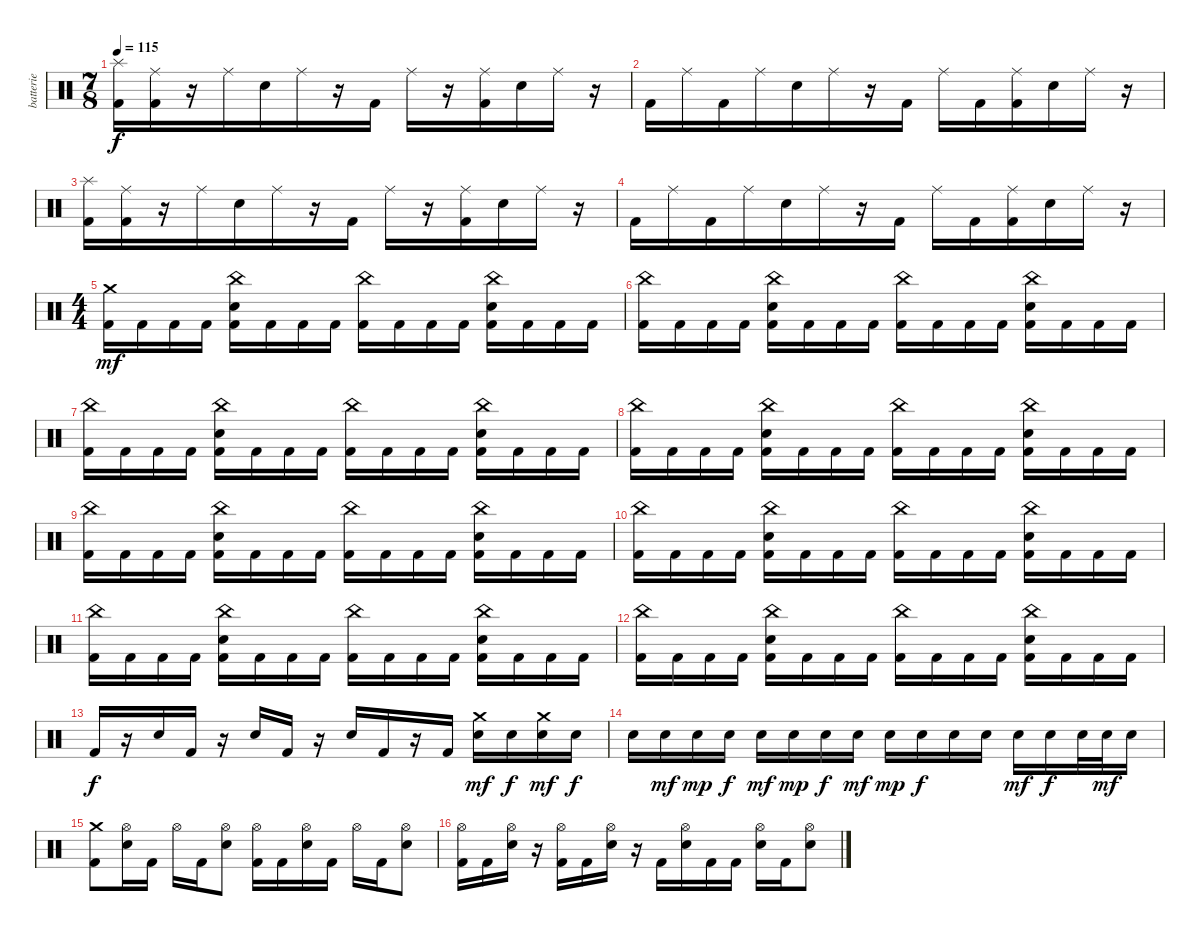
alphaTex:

\track ("batterie" "batterie") {instrument percussion}
\staff {score}
\articulation defaults
\ts (7 8)
\tempo 115
\clef neutral
\ks c
("Kick (hit) 2" "Splash (hit)").16{dy f} ("Kick (hit) 2" "Ride (middle)").16 r.16 "Ride (middle)".16 "Electric Snare (hit)".16 "Ride (middle)".16 r.16 "Kick (hit) 2".16 "Ride (middle)".16 r.16 ("Kick (hit) 2" "Ride (middle)").16 "Electric Snare (hit)".16 "Ride (middle)".16 r.16 |
"Kick (hit) 2".16 "Ride (middle)".16 "Kick (hit) 2".16 "Ride (middle)".16 "Electric Snare (hit)".16 "Ride (middle)".16 r.16 "Kick (hit) 2".16 "Ride (middle)".16 "Kick (hit) 2".16 ("Kick (hit) 2" "Ride (middle)").16 "Electric Snare (hit)".16 "Ride (middle)".16 r.16 |
("Kick (hit) 2" "Splash (hit)").16 ("Kick (hit) 2" "Ride (middle)").16 r.16 "Ride (middle)".16 "Electric Snare (hit)".16 "Ride (middle)".16 r.16 "Kick (hit) 2".16 "Ride (middle)".16 r.16 ("Kick (hit) 2" "Ride (middle)").16 "Electric Snare (hit)".16 "Ride (middle)".16 r.16 |
"Kick (hit) 2".16 "Ride (middle)".16 "Kick (hit) 2".16 "Ride (middle)".16 "Electric Snare (hit)".16 "Ride (middle)".16 r.16 "Kick (hit) 2".16 "Ride (middle)".16 "Kick (hit) 2".16 ("Kick (hit) 2" "Ride (middle)").16 "Electric Snare (hit)".16 "Ride (middle)".16 r.16 |
\ts (4 4)
("Crash medium (hit)" "Kick (hit) 2").16{dy mf} "Kick (hit) 2".16 "Kick (hit) 2".16 "Kick (hit) 2".16 ("China (hit)" "Electric Snare (hit)" "Kick (hit) 2").16 "Kick (hit) 2".16 "Kick (hit) 2".16 "Kick (hit) 2".16 ("China (hit)" "Kick (hit) 2").16 "Kick (hit) 2".16 "Kick (hit) 2".16 "Kick (hit) 2".16 ("China (hit)" "Electric Snare (hit)" "Kick (hit) 2").16 "Kick (hit) 2".16 "Kick (hit) 2".16 "Kick (hit) 2".16 |
("China (hit)" "Kick (hit) 2").16 "Kick (hit) 2".16 "Kick (hit) 2".16 "Kick (hit) 2".16 ("China (hit)" "Electric Snare (hit)" "Kick (hit) 2").16 "Kick (hit) 2".16 "Kick (hit) 2".16 "Kick (hit) 2".16 ("China (hit)" "Kick (hit) 2").16 "Kick (hit) 2".16 "Kick (hit) 2".16 "Kick (hit) 2".16 ("China (hit)" "Electric Snare (hit)" "Kick (hit) 2").16 "Kick (hit) 2".16 "Kick (hit) 2".16 "Kick (hit) 2".16 |
("China (hit)" "Kick (hit) 2").16 "Kick (hit) 2".16 "Kick (hit) 2".16 "Kick (hit) 2".16 ("China (hit)" "Electric Snare (hit)" "Kick (hit) 2").16 "Kick (hit) 2".16 "Kick (hit) 2".16 "Kick (hit) 2".16 ("China (hit)" "Kick (hit) 2").16 "Kick (hit) 2".16 "Kick (hit) 2".16 "Kick (hit) 2".16 ("China (hit)" "Electric Snare (hit)" "Kick (hit) 2").16 "Kick (hit) 2".16 "Kick (hit) 2".16 "Kick (hit) 2".16 |
("China (hit)" "Kick (hit) 2").16 "Kick (hit) 2".16 "Kick (hit) 2".16 "Kick (hit) 2".16 ("China (hit)" "Electric Snare (hit)" "Kick (hit) 2").16 "Kick (hit) 2".16 "Kick (hit) 2".16 "Kick (hit) 2".16 ("China (hit)" "Kick (hit) 2").16 "Kick (hit) 2".16 "Kick (hit) 2".16 "Kick (hit) 2".16 ("China (hit)" "Electric Snare (hit)" "Kick (hit) 2").16 "Kick (hit) 2".16 "Kick (hit) 2".16 "Kick (hit) 2".16 |
("China (hit)" "Kick (hit) 2").16 "Kick (hit) 2".16 "Kick (hit) 2".16 "Kick (hit) 2".16 ("China (hit)" "Electric Snare (hit)" "Kick (hit) 2").16 "Kick (hit) 2".16 "Kick (hit) 2".16 "Kick (hit) 2".16 ("China (hit)" "Kick (hit) 2").16 "Kick (hit) 2".16 "Kick (hit) 2".16 "Kick (hit) 2".16 ("China (hit)" "Electric Snare (hit)" "Kick (hit) 2").16 "Kick (hit) 2".16 "Kick (hit) 2".16 "Kick (hit) 2".16 |
("China (hit)" "Kick (hit) 2").16 "Kick (hit) 2".16 "Kick (hit) 2".16 "Kick (hit) 2".16 ("China (hit)" "Electric Snare (hit)" "Kick (hit) 2").16 "Kick (hit) 2".16 "Kick (hit) 2".16 "Kick (hit) 2".16 ("China (hit)" "Kick (hit) 2").16 "Kick (hit) 2".16 "Kick (hit) 2".16 "Kick (hit) 2".16 ("China (hit)" "Electric Snare (hit)" "Kick (hit) 2").16 "Kick (hit) 2".16 "Kick (hit) 2".16 "Kick (hit) 2".16 |
("China (hit)" "Kick (hit) 2").16 "Kick (hit) 2".16 "Kick (hit) 2".16 "Kick (hit) 2".16 ("China (hit)" "Electric Snare (hit)" "Kick (hit) 2").16 "Kick (hit) 2".16 "Kick (hit) 2".16 "Kick (hit) 2".16 ("China (hit)" "Kick (hit) 2").16 "Kick (hit) 2".16 "Kick (hit) 2".16 "Kick (hit) 2".16 ("China (hit)" "Electric Snare (hit)" "Kick (hit) 2").16 "Kick (hit) 2".16 "Kick (hit) 2".16 "Kick (hit) 2".16 |
("China (hit)" "Kick (hit) 2").16 "Kick (hit) 2".16 "Kick (hit) 2".16 "Kick (hit) 2".16 ("China (hit)" "Electric Snare (hit)" "Kick (hit) 2").16 "Kick (hit) 2".16 "Kick (hit) 2".16 "Kick (hit) 2".16 ("China (hit)" "Kick (hit) 2").16 "Kick (hit) 2".16 "Kick (hit) 2".16 "Kick (hit) 2".16 ("China (hit)" "Electric Snare (hit)" "Kick (hit) 2").16 "Kick (hit) 2".16 "Kick (hit) 2".16 "Kick (hit) 2".16 |
"Kick (hit) 2".16{dy f} r.16 "Electric Snare (hit)".16 "Kick (hit) 2".16 r.16 "Electric Snare (hit)".16 "Kick (hit) 2".16 r.16 "Electric Snare (hit)".16 "Kick (hit) 2".16 r.16 "Kick (hit) 2".16 ("Crash medium (hit)" "Electric Snare (hit)").16{dy mf} "Electric Snare (hit)".16{dy f} ("Crash medium (hit)" "Electric Snare (hit)").16{dy mf} "Electric Snare (hit)".16{dy f} |
"Electric Snare (hit)".16 "Electric Snare (hit)".16{dy mf} "Electric Snare (hit)".16{dy mp} "Electric Snare (hit)".16{dy f} "Electric Snare (hit)".16{dy mf} "Electric Snare (hit)".16{dy mp} "Electric Snare (hit)".16{dy f} "Electric Snare (hit)".16{dy mf} "Electric Snare (hit)".16{dy mp} "Electric Snare (hit)".16{dy f} "Electric Snare (hit)".16 "Electric Snare (hit)".16 "Electric Snare (hit)".16{dy mf} "Electric Snare (hit)".16{dy f} "Electric Snare (hit)".32 "Electric Snare (hit)".32{dy mf} "Electric Snare (hit)".16 |
("Crash medium (hit)" "Kick (hit) 2").8 ("Hi-Hat (open)" "Electric Snare (hit)").16 "Kick (hit) 2".16 "Hi-Hat (open)".16 "Kick (hit) 2".16 ("Hi-Hat (open)" "Electric Snare (hit)").8 ("Hi-Hat (open)" "Kick (hit) 2").16 "Kick (hit) 2".16 ("Hi-Hat (open)" "Electric Snare (hit)").16 "Kick (hit) 2".16 "Hi-Hat (open)".16 "Kick (hit) 2".16 ("Hi-Hat (open)" "Electric Snare (hit)").8 |
("Hi-Hat (open)" "Kick (hit) 2").16 "Kick (hit) 2".16 ("Hi-Hat (open)" "Electric Snare (hit)").16 r.16 ("Hi-Hat (open)" "Kick (hit) 2").16 "Kick (hit) 2".16 ("Hi-Hat (open)" "Electric Snare (hit)").16 r.16 "Kick (hit) 2".16 ("Hi-Hat (open)" "Electric Snare (hit)").16 "Kick (hit) 2".16 "Kick (hit) 2".16 ("Hi-Hat (open)" "Electric Snare (hit)").16 "Kick (hit) 2".16 ("Hi-Hat (open)" "Electric Snare (hit)").8
